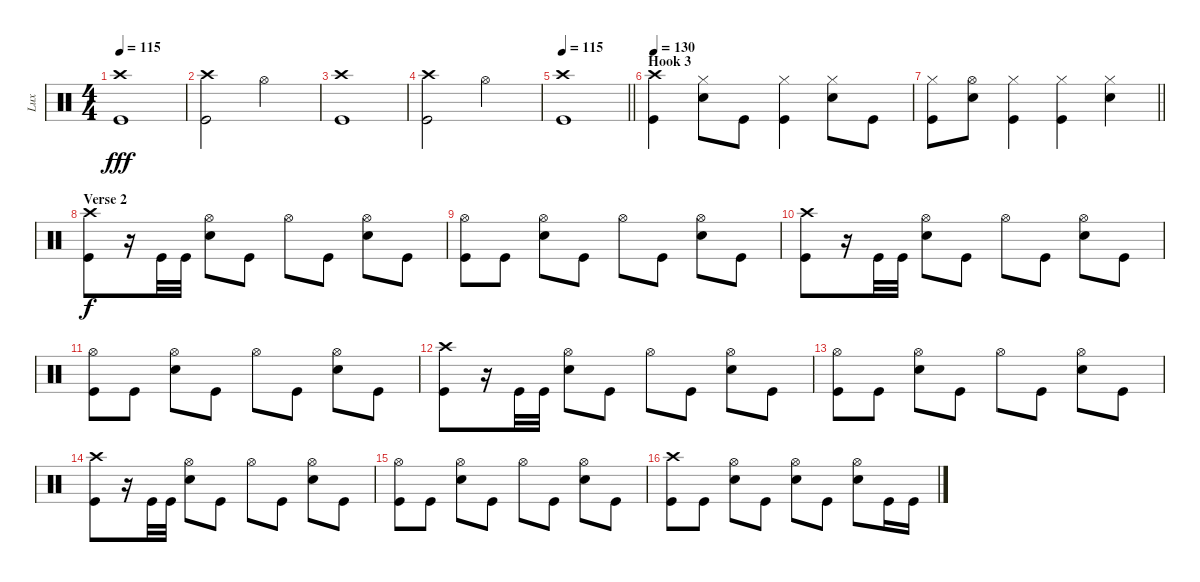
\track ("Lux" "Lux") {instrument percussion}
\staff {score}
\articulation defaults
\ts (4 4)
\tempo 115
\clef neutral
\ks c
("Crash high (hit)" "Kick (hit)").1{dy fff} |
("Crash high (hit)" "Kick (hit)").2 "Hi-Hat (open)".2 |
("Crash high (hit)" "Kick (hit)").1 |
("Crash high (hit)" "Kick (hit)").2 "Hi-Hat (open)".2 |
\tempo 130
\tempo 115
\barLineRight lightlight
("Crash high (hit)" "Kick (hit)").1 |
\section ("" "Hook 3")
\tempo 130
("Crash high (hit)" "Kick (hit)").4 ("Hi-Hat (closed)" "Snare (hit) 2").8 "Kick (hit)".8 ("Hi-Hat (closed)" "Kick (hit)").4 ("Hi-Hat (closed)" "Snare (hit) 2").8 "Kick (hit)".8 |
\barLineRight lightlight
("Hi-Hat (closed)" "Kick (hit)").8 ("Hi-Hat (open)" "Snare (hit) 2").8 ("Hi-Hat (closed)" "Kick (hit)").4 ("Hi-Hat (closed)" "Kick (hit)").4 ("Hi-Hat (closed)" "Snare (hit) 2").4 |
\section ("" "Verse 2")
("Crash high (hit)" "Kick (hit)").8{dy f} r.16 "Kick (hit)".32 "Kick (hit)".32 ("Hi-Hat (open)" "Snare (hit) 2").8 "Kick (hit)".8 "Hi-Hat (open)".8 "Kick (hit)".8 ("Hi-Hat (open)" "Snare (hit) 2").8 "Kick (hit)".8 |
("Hi-Hat (open)" "Kick (hit)").8 "Kick (hit)".8 ("Hi-Hat (open)" "Snare (hit) 2").8 "Kick (hit)".8 "Hi-Hat (open)".8 "Kick (hit)".8 ("Hi-Hat (open)" "Snare (hit) 2").8 "Kick (hit)".8 |
("Crash high (hit)" "Kick (hit)").8 r.16 "Kick (hit)".32 "Kick (hit)".32 ("Hi-Hat (open)" "Snare (hit) 2").8 "Kick (hit)".8 "Hi-Hat (open)".8 "Kick (hit)".8 ("Hi-Hat (open)" "Snare (hit) 2").8 "Kick (hit)".8 |
("Hi-Hat (open)" "Kick (hit)").8 "Kick (hit)".8 ("Hi-Hat (open)" "Snare (hit) 2").8 "Kick (hit)".8 "Hi-Hat (open)".8 "Kick (hit)".8 ("Hi-Hat (open)" "Snare (hit) 2").8 "Kick (hit)".8 |
("Crash high (hit)" "Kick (hit)").8 r.16 "Kick (hit)".32 "Kick (hit)".32 ("Hi-Hat (open)" "Snare (hit) 2").8 "Kick (hit)".8 "Hi-Hat (open)".8 "Kick (hit)".8 ("Hi-Hat (open)" "Snare (hit) 2").8 "Kick (hit)".8 |
("Hi-Hat (open)" "Kick (hit)").8 "Kick (hit)".8 ("Hi-Hat (open)" "Snare (hit) 2").8 "Kick (hit)".8 "Hi-Hat (open)".8 "Kick (hit)".8 ("Hi-Hat (open)" "Snare (hit) 2").8 "Kick (hit)".8 |
("Crash high (hit)" "Kick (hit)").8 r.16 "Kick (hit)".32 "Kick (hit)".32 ("Hi-Hat (open)" "Snare (hit) 2").8 "Kick (hit)".8 "Hi-Hat (open)".8 "Kick (hit)".8 ("Hi-Hat (open)" "Snare (hit) 2").8 "Kick (hit)".8 |
("Hi-Hat (open)" "Kick (hit)").8 "Kick (hit)".8 ("Hi-Hat (open)" "Snare (hit) 2").8 "Kick (hit)".8 "Hi-Hat (open)".8 "Kick (hit)".8 ("Hi-Hat (open)" "Snare (hit) 2").8 "Kick (hit)".8 |
("Crash high (hit)" "Kick (hit)").8 "Kick (hit)".8 ("Hi-Hat (open)" "Snare (hit) 2").8 "Kick (hit)".8 ("Hi-Hat (open)" "Snare (hit) 2").8 "Kick (hit)".8 ("Hi-Hat (open)" "Snare (hit) 2").8 "Kick (hit)".16 "Kick (hit)".16
